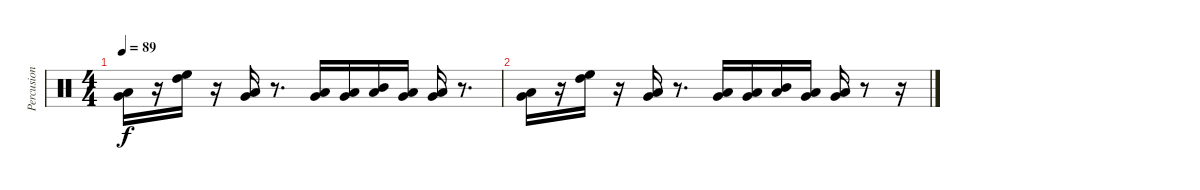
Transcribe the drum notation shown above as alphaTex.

\track ("Percusion" "Percusion") {instrument percussion}
\staff {score}
\articulation defaults
\ts (4 4)
\tempo 89
\clef neutral
\ks c
("Very Low Tom (hit)" "Low Floor Tom (hit)").16{dy f volume 0} r.16 ("High Floor Tom (hit)" "High Tom (hit)").16{volume 0} r.16 ("Very Low Tom (hit)" "Low Floor Tom (hit)").16 r.8{d} ("Very Low Tom (hit)" "Low Floor Tom (hit)").16 ("Very Low Tom (hit)" "Low Floor Tom (hit)").16 ("Mid Tom (hit)" "Low Floor Tom (hit)").16 ("Very Low Tom (hit)" "Low Floor Tom (hit)").16 ("Very Low Tom (hit)" "Low Floor Tom (hit)").16 r.8{d} |
("Very Low Tom (hit)" "Low Floor Tom (hit)").16 r.16 ("High Floor Tom (hit)" "High Tom (hit)").16 r.16 ("Very Low Tom (hit)" "Low Floor Tom (hit)").16 r.8{d} ("Very Low Tom (hit)" "Low Floor Tom (hit)").16 ("Very Low Tom (hit)" "Low Floor Tom (hit)").16 ("Mid Tom (hit)" "Low Floor Tom (hit)").16 ("Very Low Tom (hit)" "Low Floor Tom (hit)").16 ("Very Low Tom (hit)" "Low Floor Tom (hit)").16 r.8 r.16
